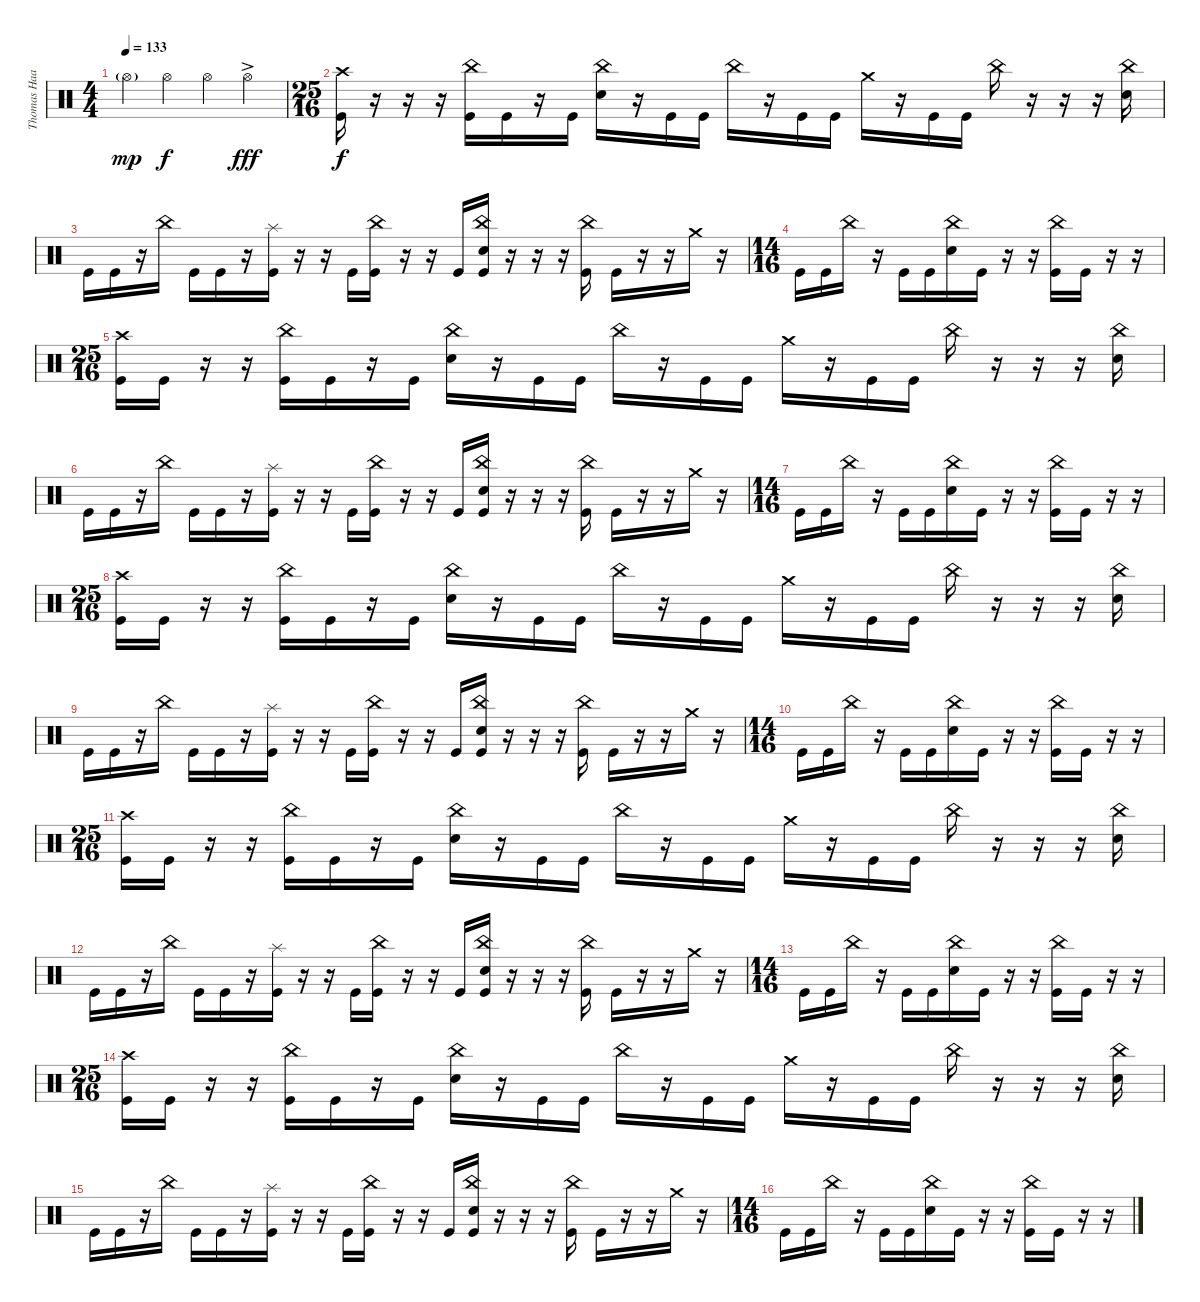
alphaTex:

\track ("Thomas Haake" "Thomas Haa") {instrument percussion}
\staff {score}
\articulation defaults
\ts (4 4)
\tempo 133
\clef neutral
\ks c "Hi-Hat (open)"{g}.4{dy mp} "Hi-Hat (open)".4{dy f} "Hi-Hat (open)".4 "Hi-Hat (open)"{ac}.4{dy fff}
|
\ts (25 16)
("Crash high (hit)" "Kick (hit)").16{dy f} r.16 r.16 r.16 ("China (hit)" "Kick (hit)").16 "Kick (hit)".16 r.16 "Kick (hit)".16 ("China (hit)" "Snare (hit) 2").16 r.16 "Kick (hit)".16 "Kick (hit)".16 "China (hit)".16 r.16 "Kick (hit)".16 "Kick (hit)".16 "Crash medium (hit)".16 r.16 "Kick (hit)".16 "Kick (hit)".16 "China (hit)".16 r.16 r.16 r.16 ("China (hit)" "Snare (hit) 2").16 |
"Kick (hit)".16 "Kick (hit)".16 r.16 "China (hit)".16 "Kick (hit)".16 "Kick (hit)".16 r.16 ("Splash (hit)" "Kick (hit)").16 r.16 r.16 "Kick (hit)".16 ("China (hit)" "Kick (hit)").16 r.16 r.16 "Kick (hit)".16 ("China (hit)" "Snare (hit) 2" "Kick (hit)").16 r.16 r.16 r.16 ("China (hit)" "Kick (hit)").16 "Kick (hit)".16 r.16 r.16 "Crash medium (hit)".16 r.16 |
\ts (14 16)
"Kick (hit)".16 "Kick (hit)".16 "China (hit)".16 r.16 "Kick (hit)".16 "Kick (hit)".16 ("China (hit)" "Snare (hit) 2").16 "Kick (hit)".16 r.16 r.16 ("China (hit)" "Kick (hit)").16 "Kick (hit)".16 r.16 r.16 |
\ts (25 16)
("Crash high (hit)" "Kick (hit)").16{volume 14} "Kick (hit)".16 r.16 r.16 ("China (hit)" "Kick (hit)").16 "Kick (hit)".16 r.16 "Kick (hit)".16 ("China (hit)" "Snare (hit) 2").16 r.16 "Kick (hit)".16 "Kick (hit)".16 "China (hit)".16 r.16 "Kick (hit)".16 "Kick (hit)".16 "Crash medium (hit)".16 r.16 "Kick (hit)".16 "Kick (hit)".16 "China (hit)".16 r.16 r.16 r.16 ("China (hit)" "Snare (hit) 2").16 |
"Kick (hit)".16 "Kick (hit)".16 r.16 "China (hit)".16 "Kick (hit)".16 "Kick (hit)".16 r.16 ("Splash (hit)" "Kick (hit)").16 r.16 r.16 "Kick (hit)".16 ("China (hit)" "Kick (hit)").16 r.16 r.16 "Kick (hit)".16 ("China (hit)" "Snare (hit) 2" "Kick (hit)").16 r.16 r.16 r.16 ("China (hit)" "Kick (hit)").16 "Kick (hit)".16 r.16 r.16 "Crash medium (hit)".16 r.16 |
\ts (14 16)
"Kick (hit)".16 "Kick (hit)".16 "China (hit)".16 r.16 "Kick (hit)".16 "Kick (hit)".16 ("China (hit)" "Snare (hit) 2").16 "Kick (hit)".16 r.16 r.16 ("China (hit)" "Kick (hit)").16 "Kick (hit)".16 r.16 r.16 |
\ts (25 16)
("Crash high (hit)" "Kick (hit)").16{volume 12} "Kick (hit)".16 r.16 r.16 ("China (hit)" "Kick (hit)").16 "Kick (hit)".16 r.16 "Kick (hit)".16 ("China (hit)" "Snare (hit) 2").16 r.16 "Kick (hit)".16 "Kick (hit)".16 "China (hit)".16 r.16 "Kick (hit)".16 "Kick (hit)".16 "Crash medium (hit)".16 r.16 "Kick (hit)".16 "Kick (hit)".16 "China (hit)".16 r.16 r.16 r.16 ("China (hit)" "Snare (hit) 2").16 |
"Kick (hit)".16 "Kick (hit)".16 r.16 "China (hit)".16 "Kick (hit)".16 "Kick (hit)".16 r.16 ("Splash (hit)" "Kick (hit)").16 r.16 r.16 "Kick (hit)".16 ("China (hit)" "Kick (hit)").16 r.16 r.16 "Kick (hit)".16 ("China (hit)" "Snare (hit) 2" "Kick (hit)").16 r.16 r.16 r.16 ("China (hit)" "Kick (hit)").16 "Kick (hit)".16 r.16 r.16 "Crash medium (hit)".16 r.16 |
\ts (14 16)
"Kick (hit)".16 "Kick (hit)".16 "China (hit)".16 r.16 "Kick (hit)".16 "Kick (hit)".16 ("China (hit)" "Snare (hit) 2").16 "Kick (hit)".16 r.16 r.16 ("China (hit)" "Kick (hit)").16 "Kick (hit)".16 r.16 r.16 |
\ts (25 16)
("Crash high (hit)" "Kick (hit)").16{volume 10} "Kick (hit)".16 r.16 r.16 ("China (hit)" "Kick (hit)").16 "Kick (hit)".16 r.16 "Kick (hit)".16 ("China (hit)" "Snare (hit) 2").16 r.16 "Kick (hit)".16 "Kick (hit)".16 "China (hit)".16 r.16 "Kick (hit)".16 "Kick (hit)".16 "Crash medium (hit)".16 r.16 "Kick (hit)".16 "Kick (hit)".16 "China (hit)".16 r.16 r.16 r.16 ("China (hit)" "Snare (hit) 2").16 |
"Kick (hit)".16 "Kick (hit)".16 r.16 "China (hit)".16 "Kick (hit)".16 "Kick (hit)".16 r.16 ("Splash (hit)" "Kick (hit)").16 r.16 r.16 "Kick (hit)".16 ("China (hit)" "Kick (hit)").16 r.16 r.16 "Kick (hit)".16 ("China (hit)" "Snare (hit) 2" "Kick (hit)").16 r.16 r.16 r.16 ("China (hit)" "Kick (hit)").16 "Kick (hit)".16 r.16 r.16 "Crash medium (hit)".16 r.16 |
\ts (14 16)
"Kick (hit)".16 "Kick (hit)".16 "China (hit)".16 r.16 "Kick (hit)".16 "Kick (hit)".16 ("China (hit)" "Snare (hit) 2").16 "Kick (hit)".16 r.16 r.16 ("China (hit)" "Kick (hit)").16 "Kick (hit)".16 r.16 r.16 |
\ts (25 16)
("Crash high (hit)" "Kick (hit)").16{volume 7} "Kick (hit)".16 r.16 r.16 ("China (hit)" "Kick (hit)").16 "Kick (hit)".16 r.16 "Kick (hit)".16 ("China (hit)" "Snare (hit) 2").16 r.16 "Kick (hit)".16 "Kick (hit)".16 "China (hit)".16 r.16 "Kick (hit)".16 "Kick (hit)".16 "Crash medium (hit)".16 r.16 "Kick (hit)".16 "Kick (hit)".16 "China (hit)".16 r.16 r.16 r.16 ("China (hit)" "Snare (hit) 2").16 |
"Kick (hit)".16 "Kick (hit)".16 r.16 "China (hit)".16 "Kick (hit)".16 "Kick (hit)".16 r.16 ("Splash (hit)" "Kick (hit)").16 r.16 r.16 "Kick (hit)".16 ("China (hit)" "Kick (hit)").16 r.16 r.16 "Kick (hit)".16 ("China (hit)" "Snare (hit) 2" "Kick (hit)").16 r.16 r.16 r.16 ("China (hit)" "Kick (hit)").16 "Kick (hit)".16 r.16 r.16 "Crash medium (hit)".16 r.16 |
\ts (14 16)
"Kick (hit)".16 "Kick (hit)".16 "China (hit)".16 r.16 "Kick (hit)".16 "Kick (hit)".16 ("China (hit)" "Snare (hit) 2").16 "Kick (hit)".16 r.16 r.16 ("China (hit)" "Kick (hit)").16 "Kick (hit)".16 r.16 r.16
